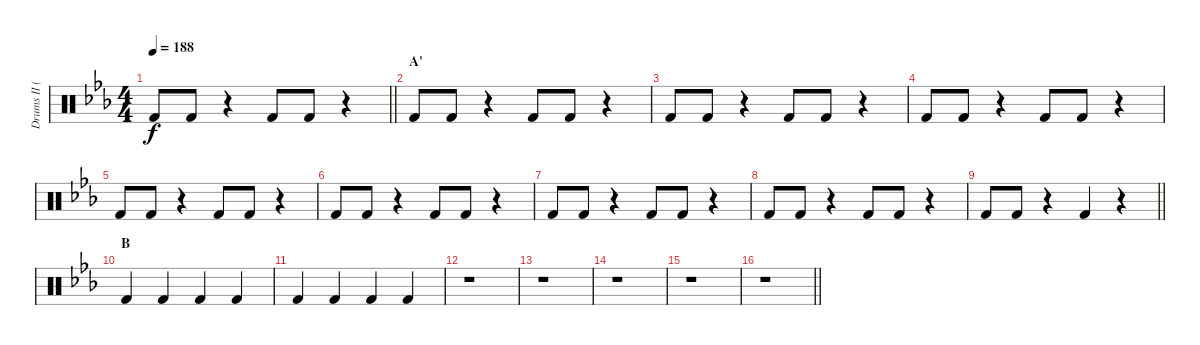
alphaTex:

\track ("Drums II (RUKA)" "Drums II (") {instrument percussion}
\staff {score}
\articulation defaults
\ts (4 4)
\tempo 188
\clef neutral
\barLineRight lightlight
\ks eb "Kick (hit) 2".8{dy f} "Kick (hit) 2".8
r.4 "Kick (hit) 2".8 "Kick (hit) 2".8 r.4 |
\section ("" "A'")
"Kick (hit) 2".8 "Kick (hit) 2".8 r.4 "Kick (hit) 2".8 "Kick (hit) 2".8 r.4 |
"Kick (hit) 2".8 "Kick (hit) 2".8 r.4 "Kick (hit) 2".8 "Kick (hit) 2".8 r.4 |
"Kick (hit) 2".8 "Kick (hit) 2".8 r.4 "Kick (hit) 2".8 "Kick (hit) 2".8 r.4 |
"Kick (hit) 2".8 "Kick (hit) 2".8 r.4 "Kick (hit) 2".8 "Kick (hit) 2".8 r.4 |
"Kick (hit) 2".8 "Kick (hit) 2".8 r.4 "Kick (hit) 2".8 "Kick (hit) 2".8 r.4 |
"Kick (hit) 2".8 "Kick (hit) 2".8 r.4 "Kick (hit) 2".8 "Kick (hit) 2".8 r.4 |
"Kick (hit) 2".8 "Kick (hit) 2".8 r.4 "Kick (hit) 2".8 "Kick (hit) 2".8 r.4 |
\barLineRight lightlight "Kick (hit) 2".8 "Kick (hit) 2".8
r.4 "Kick (hit) 2".4 r.4 |
\section ("" "B")
"Kick (hit) 2".4 "Kick (hit) 2".4 "Kick (hit) 2".4 "Kick (hit) 2".4 |
"Kick (hit) 2".4 "Kick (hit) 2".4 "Kick (hit) 2".4 "Kick (hit) 2".4 |
r.1 |
r.1 |
r.1 |
r.1 |
\barLineRight lightlight
r.1
